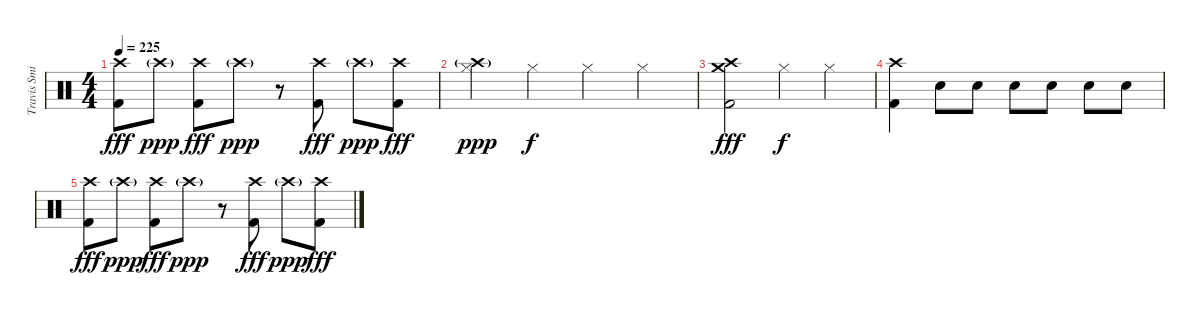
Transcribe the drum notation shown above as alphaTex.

\track ("Travis Smith" "Travis Smi") {instrument percussion}
\staff {score}
\articulation defaults
\ts (4 4)
\tempo 225
\clef neutral
\ks c
("Crash high (hit)" "Kick (hit) 2").8{dy fff} "Crash high (hit)"{g}.8{dy ppp} ("Crash high (hit)" "Kick (hit) 2").8{dy fff} "Crash high (hit)"{g}.8{dy ppp} r.8 ("Crash high (hit)" "Kick (hit) 2").8{dy fff} "Crash high (hit)"{g}.8{dy ppp} ("Crash high (hit)" "Kick (hit) 2").8{dy fff} |
("Crash high (hit)"{g} "Hi-Hat (closed)").4{dy ppp} "Hi-Hat (closed)".4{dy f} "Hi-Hat (closed)".4 "Hi-Hat (closed)".4 |
("Crash medium (hit)" "Crash high (hit)" "Kick (hit) 2").2{dy fff} "Hi-Hat (closed)".4{dy f} "Hi-Hat (closed)".4 |
("Crash high (hit)" "Kick (hit) 2").4 "Electric Snare (hit)".8 "Electric Snare (hit)".8 "Electric Snare (hit)".8 "Electric Snare (hit)".8 "Electric Snare (hit)".8 "Electric Snare (hit)".8 |
("Crash high (hit)" "Kick (hit) 2").8{dy fff} "Crash high (hit)"{g}.8{dy ppp} ("Crash high (hit)" "Kick (hit) 2").8{dy fff} "Crash high (hit)"{g}.8{dy ppp} r.8 ("Crash high (hit)" "Kick (hit) 2").8{dy fff} "Crash high (hit)"{g}.8{dy ppp} ("Crash high (hit)" "Kick (hit) 2").8{dy fff}
